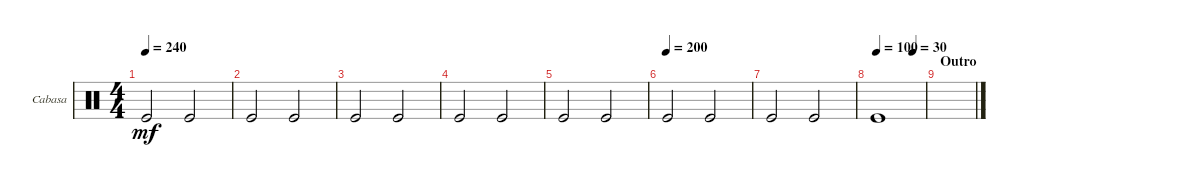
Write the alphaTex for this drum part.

\bracketExtendMode groupsimilarinstruments
\firstSystemTrackNameOrientation horizontal
\otherSystemsTrackNameOrientation horizontal
\track ("Cabasa" "Cabasa") {instrument percussion}
\staff {score}
\articulation defaults
\ts (4 4)
\tempo 240
\clef neutral
\scale
0.333333
\ks c "Kick (hit)".2{dy mf} "Kick (hit)".2
|
\scale
0.333333 "Kick (hit)".2 "Kick (hit)".2 |
\scale
0.333333 "Kick (hit)".2 "Kick (hit)".2 |
\scale
0.333333 "Kick (hit)".2 "Kick (hit)".2 |
\scale
0.333333 "Kick (hit)".2 "Kick (hit)".2 |
\tempo 200
\scale
0.333333 "Kick (hit)".2 "Kick (hit)".2 |
\scale
0.333333 "Kick (hit)".2 "Kick (hit)".2 |
\tempo 100
\tempo (30 0.75)
"Kick (hit)".1 |
\section ("" "Outro")
\tempo (50 hide)
